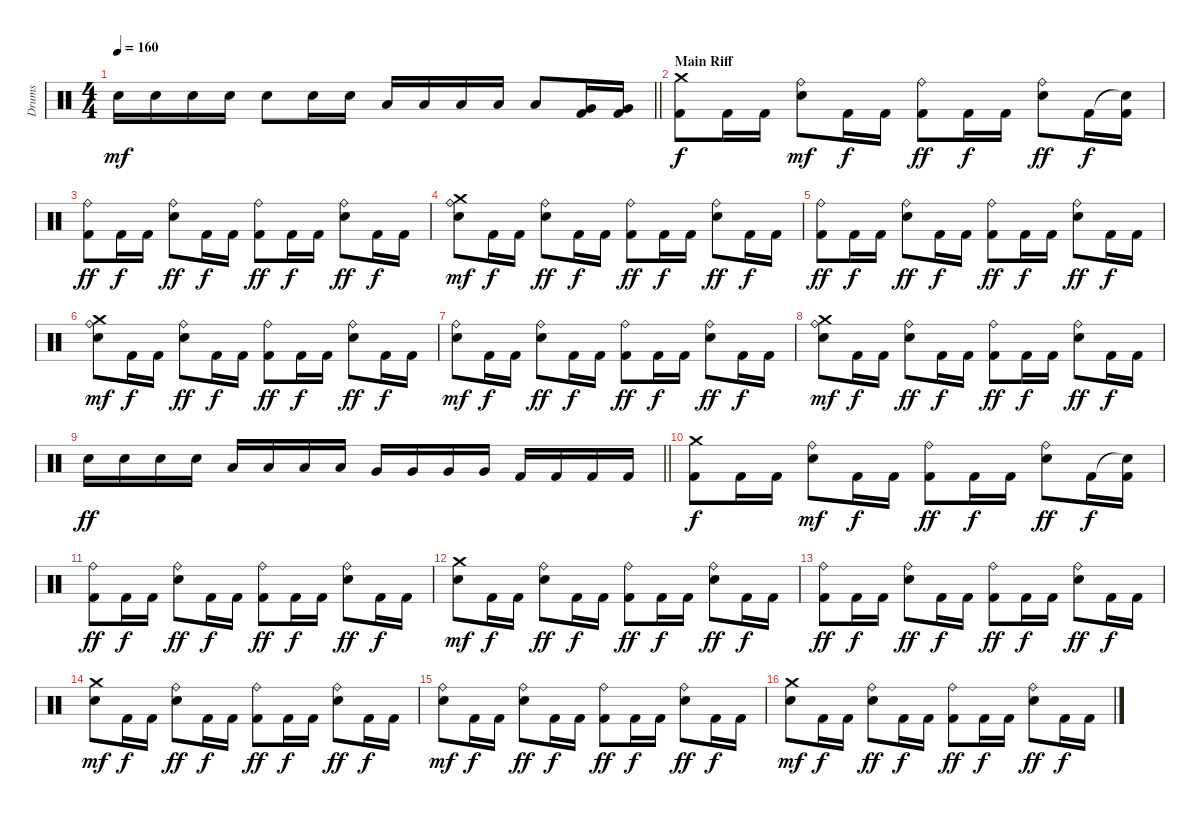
\track ("Drums" "Drums") {instrument percussion}
\staff {score}
\articulation defaults
\ts (4 4)
\tempo 160
\clef neutral
\barLineRight lightlight
\ks c "Electric Snare (hit)".16{dy mf} "Electric Snare (hit)".16 "Electric Snare (hit)".16 "Electric Snare (hit)".16 "Electric Snare (hit)".8 "Electric Snare (hit)".16 "Electric Snare (hit)".16 "Low Tom (hit)".16 "Low Tom (hit)".16 "Low Tom (hit)".16 "Low Tom (hit)".16 "Low Tom (hit)".8
("Very Low Tom (hit)" "Kick (hit) 2").16 ("Very Low Tom (hit)" "Kick (hit) 2").16 |
\section ("" "Main Riff")
("Crash medium (hit)" "Kick (hit) 2").8{dy f} "Kick (hit) 2".16 "Kick (hit) 2".16 ("Ride (bell)" "Electric Snare (hit)").8{dy mf} "Kick (hit) 2".16{dy f} "Kick (hit) 2".16 ("Ride (bell)" "Kick (hit) 2").8{dy ff} "Kick (hit) 2".16{dy f} "Kick (hit) 2".16 ("Ride (bell)" "Electric Snare (hit)").8{dy ff} "Kick (hit) 2".16{dy f} ("Snare (hit)"{t} "Kick (hit) 2").16 |
("Ride (bell)" "Kick (hit) 2").8{dy ff} "Kick (hit) 2".16{dy f} "Kick (hit) 2".16 ("Ride (bell)" "Electric Snare (hit)").8{dy ff} "Kick (hit) 2".16{dy f} "Kick (hit) 2".16 ("Ride (bell)" "Kick (hit) 2").8{dy ff} "Kick (hit) 2".16{dy f} "Kick (hit) 2".16 ("Ride (bell)" "Electric Snare (hit)").8{dy ff} "Kick (hit) 2".16{dy f} "Kick (hit) 2".16 |
("Crash medium (hit)" "Ride (bell)" "Electric Snare (hit)").8{dy mf} "Kick (hit) 2".16{dy f} "Kick (hit) 2".16 ("Ride (bell)" "Electric Snare (hit)").8{dy ff} "Kick (hit) 2".16{dy f} "Kick (hit) 2".16 ("Ride (bell)" "Kick (hit) 2").8{dy ff} "Kick (hit) 2".16{dy f} "Kick (hit) 2".16 ("Ride (bell)" "Electric Snare (hit)").8{dy ff} "Kick (hit) 2".16{dy f} "Kick (hit) 2".16 |
("Ride (bell)" "Kick (hit) 2").8{dy ff} "Kick (hit) 2".16{dy f} "Kick (hit) 2".16 ("Ride (bell)" "Electric Snare (hit)").8{dy ff} "Kick (hit) 2".16{dy f} "Kick (hit) 2".16 ("Ride (bell)" "Kick (hit) 2").8{dy ff} "Kick (hit) 2".16{dy f} "Kick (hit) 2".16 ("Ride (bell)" "Electric Snare (hit)").8{dy ff} "Kick (hit) 2".16{dy f} "Kick (hit) 2".16 |
("Crash medium (hit)" "Ride (bell)" "Electric Snare (hit)").8{dy mf} "Kick (hit) 2".16{dy f} "Kick (hit) 2".16 ("Ride (bell)" "Electric Snare (hit)").8{dy ff} "Kick (hit) 2".16{dy f} "Kick (hit) 2".16 ("Ride (bell)" "Kick (hit) 2").8{dy ff} "Kick (hit) 2".16{dy f} "Kick (hit) 2".16 ("Ride (bell)" "Electric Snare (hit)").8{dy ff} "Kick (hit) 2".16{dy f} "Kick (hit) 2".16 |
("Ride (bell)" "Electric Snare (hit)").8{dy mf} "Kick (hit) 2".16{dy f} "Kick (hit) 2".16 ("Ride (bell)" "Electric Snare (hit)").8{dy ff} "Kick (hit) 2".16{dy f} "Kick (hit) 2".16 ("Ride (bell)" "Kick (hit) 2").8{dy ff} "Kick (hit) 2".16{dy f} "Kick (hit) 2".16 ("Ride (bell)" "Electric Snare (hit)").8{dy ff} "Kick (hit) 2".16{dy f} "Kick (hit) 2".16 |
("Crash medium (hit)" "Ride (bell)" "Electric Snare (hit)").8{dy mf} "Kick (hit) 2".16{dy f} "Kick (hit) 2".16 ("Ride (bell)" "Electric Snare (hit)").8{dy ff} "Kick (hit) 2".16{dy f} "Kick (hit) 2".16 ("Ride (bell)" "Kick (hit) 2").8{dy ff} "Kick (hit) 2".16{dy f} "Kick (hit) 2".16 ("Ride (bell)" "Electric Snare (hit)").8{dy ff} "Kick (hit) 2".16{dy f} "Kick (hit) 2".16 |
\barLineRight lightlight "Electric Snare (hit)".16{dy ff} "Electric Snare (hit)".16 "Electric Snare (hit)".16 "Electric Snare (hit)".16 "Low Tom (hit)".16 "Low Tom (hit)".16 "Low Tom (hit)".16 "Low Tom (hit)".16 "Very Low Tom (hit)".16 "Very Low Tom (hit)".16 "Very Low Tom (hit)".16 "Very Low Tom (hit)".16 "Kick (hit) 2".16 "Kick (hit) 2".16 "Kick (hit) 2".16 "Kick (hit) 2".16
|
("Crash medium (hit)" "Kick (hit) 2").8{dy f} "Kick (hit) 2".16 "Kick (hit) 2".16 ("Ride (bell)" "Electric Snare (hit)").8{dy mf} "Kick (hit) 2".16{dy f} "Kick (hit) 2".16 ("Ride (bell)" "Kick (hit) 2").8{dy ff} "Kick (hit) 2".16{dy f} "Kick (hit) 2".16 ("Ride (bell)" "Electric Snare (hit)").8{dy ff} "Kick (hit) 2".16{dy f} ("Snare (hit)"{t} "Kick (hit) 2").16 |
("Ride (bell)" "Kick (hit) 2").8{dy ff} "Kick (hit) 2".16{dy f} "Kick (hit) 2".16 ("Ride (bell)" "Electric Snare (hit)").8{dy ff} "Kick (hit) 2".16{dy f} "Kick (hit) 2".16 ("Ride (bell)" "Kick (hit) 2").8{dy ff} "Kick (hit) 2".16{dy f} "Kick (hit) 2".16 ("Ride (bell)" "Electric Snare (hit)").8{dy ff} "Kick (hit) 2".16{dy f} "Kick (hit) 2".16 |
("Crash medium (hit)" "Electric Snare (hit)").8{dy mf} "Kick (hit) 2".16{dy f} "Kick (hit) 2".16 ("Ride (bell)" "Electric Snare (hit)").8{dy ff} "Kick (hit) 2".16{dy f} "Kick (hit) 2".16 ("Ride (bell)" "Kick (hit) 2").8{dy ff} "Kick (hit) 2".16{dy f} "Kick (hit) 2".16 ("Ride (bell)" "Electric Snare (hit)").8{dy ff} "Kick (hit) 2".16{dy f} "Kick (hit) 2".16 |
("Ride (bell)" "Kick (hit) 2").8{dy ff} "Kick (hit) 2".16{dy f} "Kick (hit) 2".16 ("Ride (bell)" "Electric Snare (hit)").8{dy ff} "Kick (hit) 2".16{dy f} "Kick (hit) 2".16 ("Ride (bell)" "Kick (hit) 2").8{dy ff} "Kick (hit) 2".16{dy f} "Kick (hit) 2".16 ("Ride (bell)" "Electric Snare (hit)").8{dy ff} "Kick (hit) 2".16{dy f} "Kick (hit) 2".16 |
("Crash medium (hit)" "Electric Snare (hit)").8{dy mf} "Kick (hit) 2".16{dy f} "Kick (hit) 2".16 ("Ride (bell)" "Electric Snare (hit)").8{dy ff} "Kick (hit) 2".16{dy f} "Kick (hit) 2".16 ("Ride (bell)" "Kick (hit) 2").8{dy ff} "Kick (hit) 2".16{dy f} "Kick (hit) 2".16 ("Ride (bell)" "Electric Snare (hit)").8{dy ff} "Kick (hit) 2".16{dy f} "Kick (hit) 2".16 |
("Ride (bell)" "Electric Snare (hit)").8{dy mf} "Kick (hit) 2".16{dy f} "Kick (hit) 2".16 ("Ride (bell)" "Electric Snare (hit)").8{dy ff} "Kick (hit) 2".16{dy f} "Kick (hit) 2".16 ("Ride (bell)" "Kick (hit) 2").8{dy ff} "Kick (hit) 2".16{dy f} "Kick (hit) 2".16 ("Ride (bell)" "Electric Snare (hit)").8{dy ff} "Kick (hit) 2".16{dy f} "Kick (hit) 2".16 |
("Crash medium (hit)" "Electric Snare (hit)").8{dy mf} "Kick (hit) 2".16{dy f} "Kick (hit) 2".16 ("Ride (bell)" "Electric Snare (hit)").8{dy ff} "Kick (hit) 2".16{dy f} "Kick (hit) 2".16 ("Ride (bell)" "Kick (hit) 2").8{dy ff} "Kick (hit) 2".16{dy f} "Kick (hit) 2".16 ("Ride (bell)" "Electric Snare (hit)").8{dy ff} "Kick (hit) 2".16{dy f} "Kick (hit) 2".16
